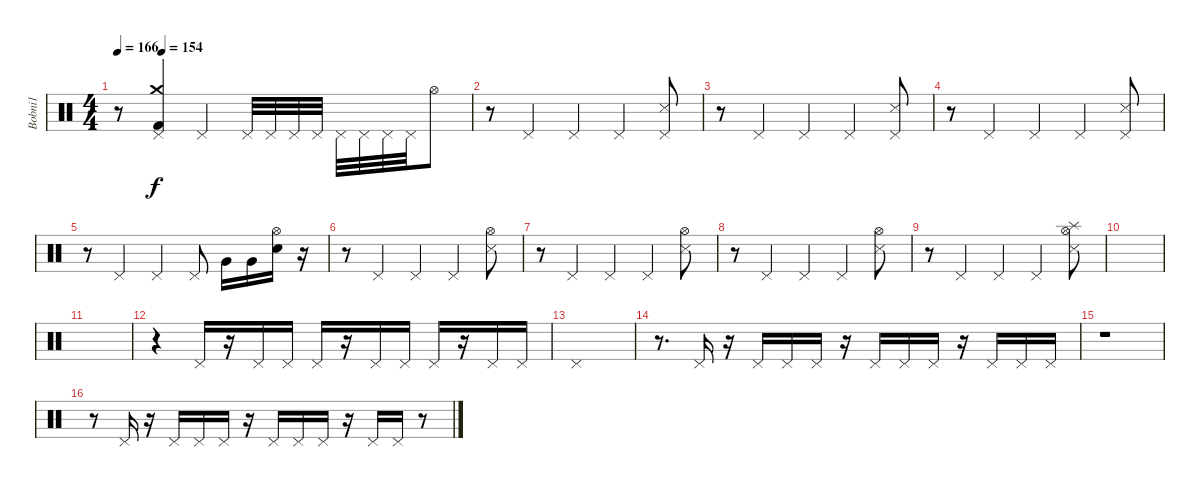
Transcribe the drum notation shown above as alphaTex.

\track ("Bobni1" "Bobni1") {instrument percussion}
\staff {score}
\articulation defaults
\ts (4 4)
\tempo 166
\tempo (154 0.125)
\clef neutral
\ks c
r.8{dy f} ("Pedal Hi-Hat (hit)" "Crash medium (hit)" "Kick (hit) 2").4 "Pedal Hi-Hat (hit)".4 "Pedal Hi-Hat (hit)".32 "Pedal Hi-Hat (hit)".32 "Pedal Hi-Hat (hit)".32 "Pedal Hi-Hat (hit)".32 "Pedal Hi-Hat (hit)".32 "Pedal Hi-Hat (hit)".32 "Pedal Hi-Hat (hit)".32 "Pedal Hi-Hat (hit)".32 "Hi-Hat (open)".8 |
r.8 "Pedal Hi-Hat (hit)".4 "Pedal Hi-Hat (hit)".4 "Pedal Hi-Hat (hit)".4 ("Pedal Hi-Hat (hit)" "Snare (side stick) 3").8 |
r.8 "Pedal Hi-Hat (hit)".4 "Pedal Hi-Hat (hit)".4 "Pedal Hi-Hat (hit)".4 ("Pedal Hi-Hat (hit)" "Snare (side stick) 3").8 |
r.8 "Pedal Hi-Hat (hit)".4 "Pedal Hi-Hat (hit)".4 "Pedal Hi-Hat (hit)".4 ("Pedal Hi-Hat (hit)" "Snare (side stick) 3").8 |
r.8 "Pedal Hi-Hat (hit)".4 "Pedal Hi-Hat (hit)".4 "Pedal Hi-Hat (hit)".8 "Very Low Tom (hit)".16 "Very Low Tom (hit)".16 ("Hi-Hat (open)" "Snare (hit) 2").16 r.16 |
r.8 "Pedal Hi-Hat (hit)".4 "Pedal Hi-Hat (hit)".4 "Pedal Hi-Hat (hit)".4 ("Hi-Hat (open)" "Snare (side stick) 3").8 |
r.8 "Pedal Hi-Hat (hit)".4 "Pedal Hi-Hat (hit)".4 "Pedal Hi-Hat (hit)".4 ("Hi-Hat (open)" "Snare (side stick) 3").8 |
r.8 "Pedal Hi-Hat (hit)".4 "Pedal Hi-Hat (hit)".4 "Pedal Hi-Hat (hit)".4 ("Hi-Hat (open)" "Snare (side stick) 3").8 |
r.8 "Pedal Hi-Hat (hit)".4 "Pedal Hi-Hat (hit)".4 "Pedal Hi-Hat (hit)".4 ("Hi-Hat (open)" "Splash (hit)" "Snare (side stick) 3").8 |
|
|
r.4 "Pedal Hi-Hat (hit)".16 r.16 "Pedal Hi-Hat (hit)".16 "Pedal Hi-Hat (hit)".16 "Pedal Hi-Hat (hit)".16 r.16 "Pedal Hi-Hat (hit)".16 "Pedal Hi-Hat (hit)".16 "Pedal Hi-Hat (hit)".16 r.16 "Pedal Hi-Hat (hit)".16 "Pedal Hi-Hat (hit)".16 |
"Pedal Hi-Hat (hit)".1 |
r.8{d} "Pedal Hi-Hat (hit)".16 r.16 "Pedal Hi-Hat (hit)".16 "Pedal Hi-Hat (hit)".16 "Pedal Hi-Hat (hit)".16 r.16 "Pedal Hi-Hat (hit)".16 "Pedal Hi-Hat (hit)".16 "Pedal Hi-Hat (hit)".16 r.16 "Pedal Hi-Hat (hit)".16 "Pedal Hi-Hat (hit)".16 "Pedal Hi-Hat (hit)".16 |
r.1 |
r.8 "Pedal Hi-Hat (hit)".16 r.16 "Pedal Hi-Hat (hit)".16 "Pedal Hi-Hat (hit)".16 "Pedal Hi-Hat (hit)".16 r.16 "Pedal Hi-Hat (hit)".16 "Pedal Hi-Hat (hit)".16 "Pedal Hi-Hat (hit)".16 r.16 "Pedal Hi-Hat (hit)".16 "Pedal Hi-Hat (hit)".16 r.8
